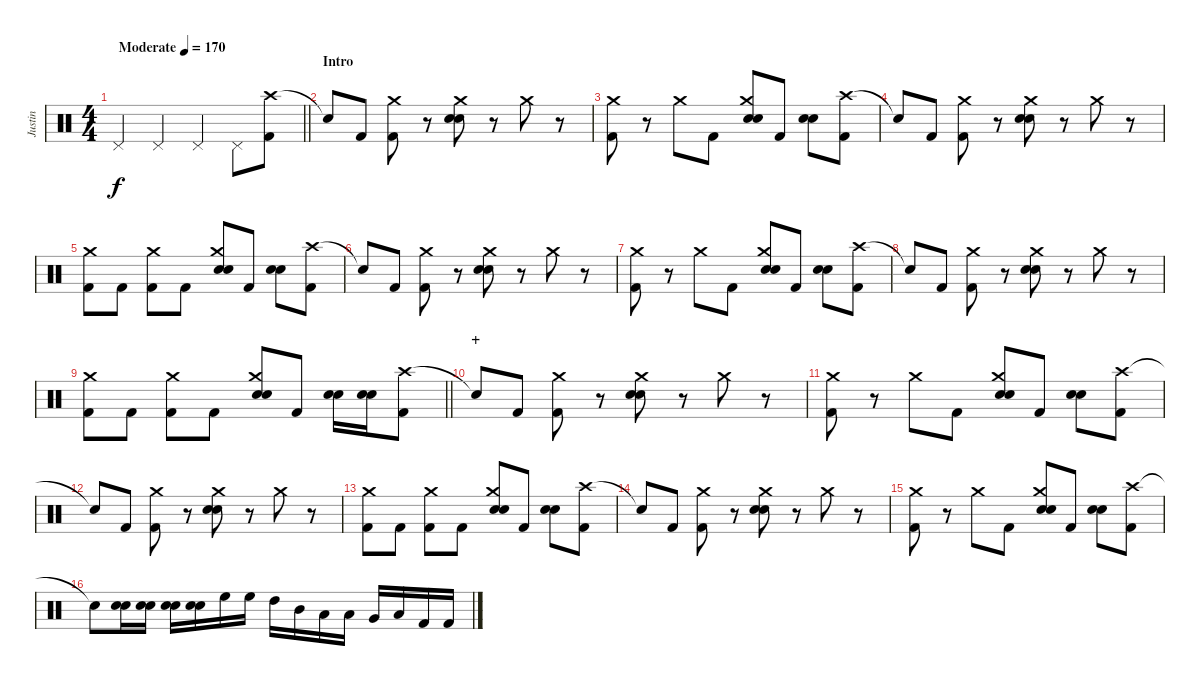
\track ("Justin" "Justin") {instrument percussion}
\staff {score}
\articulation defaults
\ts (4 4)
\tempo (170 "Moderate")
\clef neutral
\barLineRight lightlight
\ks c "Pedal Hi-Hat (hit)".4{dy f} "Pedal Hi-Hat (hit)".4 "Pedal Hi-Hat (hit)".4 "Pedal Hi-Hat (hit)".8
("Crash high (hit)" "Kick (hit) 2").8 |
\section ("" "Intro")
"Snare (hit)"{t}.8 "Kick (hit) 2".8 ("Crash medium (hit)" "Kick (hit) 2").8 r.8 ("Crash medium (hit)" "Electric Snare (hit)" "Snare (hit) 2").8 r.8 "Crash medium (hit)".8 r.8 |
("Crash medium (hit)" "Kick (hit) 2").8 r.8 "Crash medium (hit)".8 "Kick (hit) 2".8 ("Crash medium (hit)" "Electric Snare (hit)" "Snare (hit) 2").8 "Kick (hit) 2".8 ("Electric Snare (hit)" "Snare (hit) 2").8 ("Crash high (hit)" "Kick (hit) 2").8 |
"Snare (hit)"{t}.8 "Kick (hit) 2".8 ("Crash medium (hit)" "Kick (hit) 2").8 r.8 ("Crash medium (hit)" "Electric Snare (hit)" "Snare (hit) 2").8 r.8 "Crash medium (hit)".8 r.8 |
("Crash medium (hit)" "Kick (hit) 2").8 "Kick (hit) 2".8 ("Crash medium (hit)" "Kick (hit) 2").8 "Kick (hit) 2".8 ("Crash medium (hit)" "Electric Snare (hit)" "Snare (hit) 2").8 "Kick (hit) 2".8 ("Electric Snare (hit)" "Snare (hit) 2").8 ("Crash high (hit)" "Kick (hit) 2").8 |
"Snare (hit)"{t}.8 "Kick (hit) 2".8 ("Crash medium (hit)" "Kick (hit) 2").8 r.8 ("Crash medium (hit)" "Electric Snare (hit)" "Snare (hit) 2").8 r.8 "Crash medium (hit)".8 r.8 |
("Crash medium (hit)" "Kick (hit) 2").8 r.8 "Crash medium (hit)".8 "Kick (hit) 2".8 ("Crash medium (hit)" "Electric Snare (hit)" "Snare (hit) 2").8 "Kick (hit) 2".8 ("Electric Snare (hit)" "Snare (hit) 2").8 ("Crash high (hit)" "Kick (hit) 2").8 |
"Snare (hit)"{t}.8 "Kick (hit) 2".8 ("Crash medium (hit)" "Kick (hit) 2").8 r.8 ("Crash medium (hit)" "Electric Snare (hit)" "Snare (hit) 2").8 r.8 "Crash medium (hit)".8 r.8 |
\barLineRight lightlight
("Crash medium (hit)" "Kick (hit) 2").8 "Kick (hit) 2".8 ("Crash medium (hit)" "Kick (hit) 2").8 "Kick (hit) 2".8 ("Crash medium (hit)" "Electric Snare (hit)" "Snare (hit) 2").8 "Kick (hit) 2".8 ("Electric Snare (hit)" "Snare (hit) 2").16 ("Electric Snare (hit)" "Snare (hit) 2").16 ("Crash high (hit)" "Kick (hit) 2").8 |
\section ("" "+")
"Snare (hit)"{t}.8 "Kick (hit) 2".8 ("Crash medium (hit)" "Kick (hit) 2").8 r.8 ("Crash medium (hit)" "Electric Snare (hit)" "Snare (hit) 2").8 r.8 "Crash medium (hit)".8 r.8 |
("Crash medium (hit)" "Kick (hit) 2").8 r.8 "Crash medium (hit)".8 "Kick (hit) 2".8 ("Crash medium (hit)" "Electric Snare (hit)" "Snare (hit) 2").8 "Kick (hit) 2".8 ("Electric Snare (hit)" "Snare (hit) 2").8 ("Crash high (hit)" "Kick (hit) 2").8 |
"Snare (hit)"{t}.8 "Kick (hit) 2".8 ("Crash medium (hit)" "Kick (hit) 2").8 r.8 ("Crash medium (hit)" "Electric Snare (hit)" "Snare (hit) 2").8 r.8 "Crash medium (hit)".8 r.8 |
("Crash medium (hit)" "Kick (hit) 2").8 "Kick (hit) 2".8 ("Crash medium (hit)" "Kick (hit) 2").8 "Kick (hit) 2".8 ("Crash medium (hit)" "Electric Snare (hit)" "Snare (hit) 2").8 "Kick (hit) 2".8 ("Electric Snare (hit)" "Snare (hit) 2").8 ("Crash high (hit)" "Kick (hit) 2").8 |
"Snare (hit)"{t}.8 "Kick (hit) 2".8 ("Crash medium (hit)" "Kick (hit) 2").8 r.8 ("Crash medium (hit)" "Electric Snare (hit)" "Snare (hit) 2").8 r.8 "Crash medium (hit)".8 r.8 |
("Crash medium (hit)" "Kick (hit) 2").8 r.8 "Crash medium (hit)".8 "Kick (hit) 2".8 ("Crash medium (hit)" "Electric Snare (hit)" "Snare (hit) 2").8 "Kick (hit) 2".8 ("Electric Snare (hit)" "Snare (hit) 2").8 ("Crash high (hit)" "Kick (hit) 2").8 |
"Snare (hit)"{t}.8 ("Electric Snare (hit)" "Snare (hit) 2").16 ("Electric Snare (hit)" "Snare (hit) 2").16 ("Electric Snare (hit)" "Snare (hit) 2").16 ("Electric Snare (hit)" "Snare (hit) 2").16 "High Floor Tom (hit)".16 "High Floor Tom (hit)".16 "High Tom (hit)".16 "Mid Tom (hit)".16 "Low Tom (hit)".16 "Low Tom (hit)".16 "Very Low Tom (hit)".16 "Low Floor Tom (hit)".16 "Kick (hit) 2".16 "Kick (hit) 2".16
